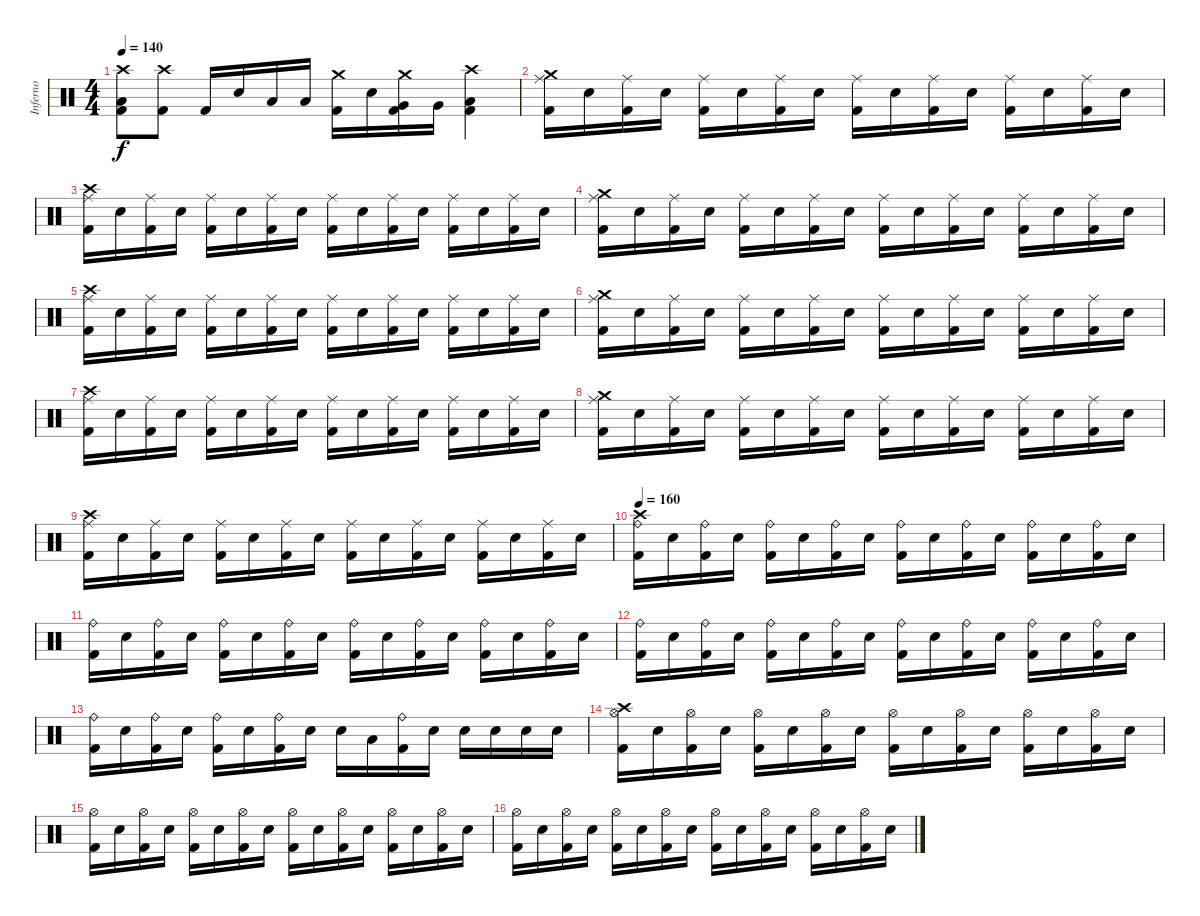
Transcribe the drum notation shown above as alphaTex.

\track ("Inferno" "Inferno") {instrument percussion}
\staff {score}
\articulation defaults
\ts (4 4)
\tempo 140
\clef neutral
\ks c
("Crash high (hit)" "Low Tom (hit)" "Kick (hit) 2").8{dy f} ("Crash high (hit)" "Kick (hit) 2").8 "Kick (hit) 2".16 "Electric Snare (hit)".16 "Low Tom (hit)".16 "Low Tom (hit)".16 ("Crash medium (hit)" "Kick (hit) 2").16 "Electric Snare (hit)".16 ("Crash medium (hit)" "Very Low Tom (hit)" "Kick (hit) 2").16 "Very Low Tom (hit)".16 ("Crash high (hit)" "Low Floor Tom (hit)" "Kick (hit) 2").4 |
("Crash medium (hit)" "Ride (middle)" "Kick (hit) 2").16 "Electric Snare (hit)".16 ("Ride (middle)" "Kick (hit) 2").16 "Electric Snare (hit)".16 ("Ride (middle)" "Kick (hit) 2").16 "Electric Snare (hit)".16 ("Ride (middle)" "Kick (hit) 2").16 "Electric Snare (hit)".16 ("Ride (middle)" "Kick (hit) 2").16 "Electric Snare (hit)".16 ("Ride (middle)" "Kick (hit) 2").16 "Electric Snare (hit)".16 ("Ride (middle)" "Kick (hit) 2").16 "Electric Snare (hit)".16 ("Ride (middle)" "Kick (hit) 2").16 "Electric Snare (hit)".16 |
("Crash high (hit)" "Ride (middle)" "Kick (hit) 2").16 "Electric Snare (hit)".16 ("Ride (middle)" "Kick (hit) 2").16 "Electric Snare (hit)".16 ("Ride (middle)" "Kick (hit) 2").16 "Electric Snare (hit)".16 ("Ride (middle)" "Kick (hit) 2").16 "Electric Snare (hit)".16 ("Ride (middle)" "Kick (hit) 2").16 "Electric Snare (hit)".16 ("Ride (middle)" "Kick (hit) 2").16 "Electric Snare (hit)".16 ("Ride (middle)" "Kick (hit) 2").16 "Electric Snare (hit)".16 ("Ride (middle)" "Kick (hit) 2").16 "Electric Snare (hit)".16 |
("Crash medium (hit)" "Ride (middle)" "Kick (hit) 2").16 "Electric Snare (hit)".16 ("Ride (middle)" "Kick (hit) 2").16 "Electric Snare (hit)".16 ("Ride (middle)" "Kick (hit) 2").16 "Electric Snare (hit)".16 ("Ride (middle)" "Kick (hit) 2").16 "Electric Snare (hit)".16 ("Ride (middle)" "Kick (hit) 2").16 "Electric Snare (hit)".16 ("Ride (middle)" "Kick (hit) 2").16 "Electric Snare (hit)".16 ("Ride (middle)" "Kick (hit) 2").16 "Electric Snare (hit)".16 ("Ride (middle)" "Kick (hit) 2").16 "Electric Snare (hit)".16 |
("Crash high (hit)" "Ride (middle)" "Kick (hit) 2").16 "Electric Snare (hit)".16 ("Ride (middle)" "Kick (hit) 2").16 "Electric Snare (hit)".16 ("Ride (middle)" "Kick (hit) 2").16 "Electric Snare (hit)".16 ("Ride (middle)" "Kick (hit) 2").16 "Electric Snare (hit)".16 ("Ride (middle)" "Kick (hit) 2").16 "Electric Snare (hit)".16 ("Ride (middle)" "Kick (hit) 2").16 "Electric Snare (hit)".16 ("Ride (middle)" "Kick (hit) 2").16 "Electric Snare (hit)".16 ("Ride (middle)" "Kick (hit) 2").16 "Electric Snare (hit)".16 |
("Crash medium (hit)" "Ride (middle)" "Kick (hit) 2").16 "Electric Snare (hit)".16 ("Ride (middle)" "Kick (hit) 2").16 "Electric Snare (hit)".16 ("Ride (middle)" "Kick (hit) 2").16 "Electric Snare (hit)".16 ("Ride (middle)" "Kick (hit) 2").16 "Electric Snare (hit)".16 ("Ride (middle)" "Kick (hit) 2").16 "Electric Snare (hit)".16 ("Ride (middle)" "Kick (hit) 2").16 "Electric Snare (hit)".16 ("Ride (middle)" "Kick (hit) 2").16 "Electric Snare (hit)".16 ("Ride (middle)" "Kick (hit) 2").16 "Electric Snare (hit)".16 |
("Crash high (hit)" "Ride (middle)" "Kick (hit) 2").16 "Electric Snare (hit)".16 ("Ride (middle)" "Kick (hit) 2").16 "Electric Snare (hit)".16 ("Ride (middle)" "Kick (hit) 2").16 "Electric Snare (hit)".16 ("Ride (middle)" "Kick (hit) 2").16 "Electric Snare (hit)".16 ("Ride (middle)" "Kick (hit) 2").16 "Electric Snare (hit)".16 ("Ride (middle)" "Kick (hit) 2").16 "Electric Snare (hit)".16 ("Ride (middle)" "Kick (hit) 2").16 "Electric Snare (hit)".16 ("Ride (middle)" "Kick (hit) 2").16 "Electric Snare (hit)".16 |
("Crash medium (hit)" "Ride (middle)" "Kick (hit) 2").16 "Electric Snare (hit)".16 ("Ride (middle)" "Kick (hit) 2").16 "Electric Snare (hit)".16 ("Ride (middle)" "Kick (hit) 2").16 "Electric Snare (hit)".16 ("Ride (middle)" "Kick (hit) 2").16 "Electric Snare (hit)".16 ("Ride (middle)" "Kick (hit) 2").16 "Electric Snare (hit)".16 ("Ride (middle)" "Kick (hit) 2").16 "Electric Snare (hit)".16 ("Ride (middle)" "Kick (hit) 2").16 "Electric Snare (hit)".16 ("Ride (middle)" "Kick (hit) 2").16 "Electric Snare (hit)".16 |
("Crash high (hit)" "Ride (middle)" "Kick (hit) 2").16 "Electric Snare (hit)".16 ("Ride (middle)" "Kick (hit) 2").16 "Electric Snare (hit)".16 ("Ride (middle)" "Kick (hit) 2").16 "Electric Snare (hit)".16 ("Ride (middle)" "Kick (hit) 2").16 "Electric Snare (hit)".16 ("Ride (middle)" "Kick (hit) 2").16 "Electric Snare (hit)".16 ("Ride (middle)" "Kick (hit) 2").16 "Electric Snare (hit)".16 ("Ride (middle)" "Kick (hit) 2").16 "Electric Snare (hit)".16 ("Ride (middle)" "Kick (hit) 2").16 "Electric Snare (hit)".16 |
\tempo 160
("Crash high (hit)" "Ride (bell)" "Kick (hit) 2").16 "Electric Snare (hit)".16 ("Ride (bell)" "Kick (hit) 2").16 "Electric Snare (hit)".16 ("Ride (bell)" "Kick (hit) 2").16 "Electric Snare (hit)".16 ("Ride (bell)" "Kick (hit) 2").16 "Electric Snare (hit)".16 ("Ride (bell)" "Kick (hit) 2").16 "Electric Snare (hit)".16 ("Ride (bell)" "Kick (hit) 2").16 "Electric Snare (hit)".16 ("Ride (bell)" "Kick (hit) 2").16 "Electric Snare (hit)".16 ("Ride (bell)" "Kick (hit) 2").16 "Electric Snare (hit)".16 |
("Ride (bell)" "Kick (hit) 2").16 "Electric Snare (hit)".16 ("Ride (bell)" "Kick (hit) 2").16 "Electric Snare (hit)".16 ("Ride (bell)" "Kick (hit) 2").16 "Electric Snare (hit)".16 ("Ride (bell)" "Kick (hit) 2").16 "Electric Snare (hit)".16 ("Ride (bell)" "Kick (hit) 2").16 "Electric Snare (hit)".16 ("Ride (bell)" "Kick (hit) 2").16 "Electric Snare (hit)".16 ("Ride (bell)" "Kick (hit) 2").16 "Electric Snare (hit)".16 ("Ride (bell)" "Kick (hit) 2").16 "Electric Snare (hit)".16 |
("Ride (bell)" "Kick (hit) 2").16 "Electric Snare (hit)".16 ("Ride (bell)" "Kick (hit) 2").16 "Electric Snare (hit)".16 ("Ride (bell)" "Kick (hit) 2").16 "Electric Snare (hit)".16 ("Ride (bell)" "Kick (hit) 2").16 "Electric Snare (hit)".16 ("Ride (bell)" "Kick (hit) 2").16 "Electric Snare (hit)".16 ("Ride (bell)" "Kick (hit) 2").16 "Electric Snare (hit)".16 ("Ride (bell)" "Kick (hit) 2").16 "Electric Snare (hit)".16 ("Ride (bell)" "Kick (hit) 2").16 "Electric Snare (hit)".16 |
("Ride (bell)" "Kick (hit) 2").16 "Electric Snare (hit)".16 ("Ride (bell)" "Kick (hit) 2").16 "Electric Snare (hit)".16 ("Ride (bell)" "Kick (hit) 2").16 "Electric Snare (hit)".16 ("Ride (bell)" "Kick (hit) 2").16 "Electric Snare (hit)".16 "Electric Snare (hit)".16 "Low Tom (hit)".16 ("Ride (bell)" "Kick (hit) 2").16 "Electric Snare (hit)".16 "Electric Snare (hit)".16 "Electric Snare (hit)".16 "Electric Snare (hit)".16 "Electric Snare (hit)".16 |
("Crash high (hit)" "Hi-Hat (open)" "Kick (hit) 2").16 "Electric Snare (hit)".16 ("Hi-Hat (open)" "Kick (hit) 2").16 "Electric Snare (hit)".16 ("Hi-Hat (open)" "Kick (hit) 2").16 "Electric Snare (hit)".16 ("Hi-Hat (open)" "Kick (hit) 2").16 "Electric Snare (hit)".16 ("Hi-Hat (open)" "Kick (hit) 2").16 "Electric Snare (hit)".16 ("Hi-Hat (open)" "Kick (hit) 2").16 "Electric Snare (hit)".16 ("Hi-Hat (open)" "Kick (hit) 2").16 "Electric Snare (hit)".16 ("Hi-Hat (open)" "Kick (hit) 2").16 "Electric Snare (hit)".16 |
("Hi-Hat (open)" "Kick (hit) 2").16 "Electric Snare (hit)".16 ("Hi-Hat (open)" "Kick (hit) 2").16 "Electric Snare (hit)".16 ("Hi-Hat (open)" "Kick (hit) 2").16 "Electric Snare (hit)".16 ("Hi-Hat (open)" "Kick (hit) 2").16 "Electric Snare (hit)".16 ("Hi-Hat (open)" "Kick (hit) 2").16 "Electric Snare (hit)".16 ("Hi-Hat (open)" "Kick (hit) 2").16 "Electric Snare (hit)".16 ("Hi-Hat (open)" "Kick (hit) 2").16 "Electric Snare (hit)".16 ("Hi-Hat (open)" "Kick (hit) 2").16 "Electric Snare (hit)".16 |
("Hi-Hat (open)" "Kick (hit) 2").16 "Electric Snare (hit)".16 ("Hi-Hat (open)" "Kick (hit) 2").16 "Electric Snare (hit)".16 ("Hi-Hat (open)" "Kick (hit) 2").16 "Electric Snare (hit)".16 ("Hi-Hat (open)" "Kick (hit) 2").16 "Electric Snare (hit)".16 ("Hi-Hat (open)" "Kick (hit) 2").16 "Electric Snare (hit)".16 ("Hi-Hat (open)" "Kick (hit) 2").16 "Electric Snare (hit)".16 ("Hi-Hat (open)" "Kick (hit) 2").16 "Electric Snare (hit)".16 ("Hi-Hat (open)" "Kick (hit) 2").16 "Electric Snare (hit)".16
